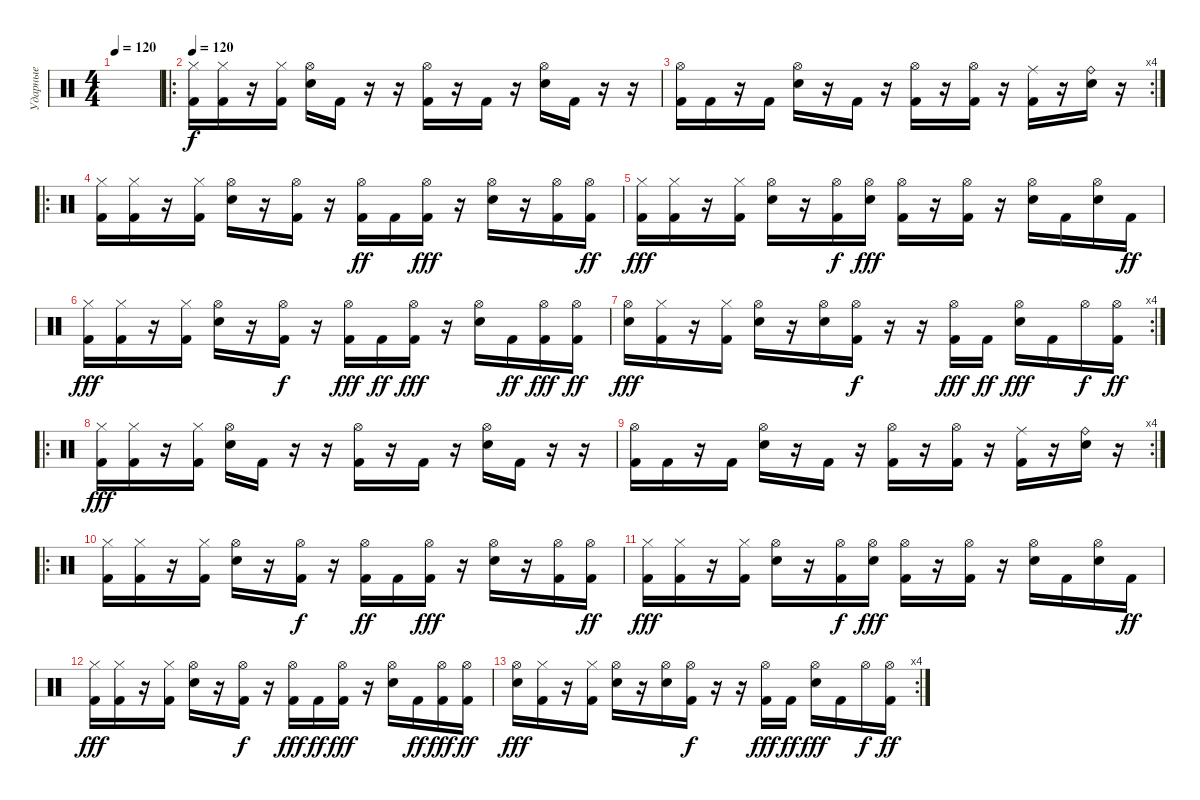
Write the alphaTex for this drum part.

\track ("Ударные" "Ударные") {instrument percussion}
\staff {score}
\articulation defaults
\ts (4 4)
\tempo 120
\clef neutral
\ks c
|
\ro
\tempo 120
("Hi-Hat (closed)" "Kick (hit) 2").16 ("Hi-Hat (closed)" "Kick (hit) 2").16 r.16 ("Hi-Hat (closed)" "Kick (hit) 2").16 ("Hi-Hat (open)" "Electric Snare (hit)").16 "Kick (hit) 2".16 r.16 r.16 ("Hi-Hat (open)" "Kick (hit) 2").16 r.16 "Kick (hit) 2".16 r.16 ("Hi-Hat (open)" "Electric Snare (hit)").16 "Kick (hit) 2".16 r.16 r.16 |
\rc 4
("Hi-Hat (open)" "Kick (hit) 2").16 "Kick (hit) 2".16 r.16 "Kick (hit) 2".16 ("Hi-Hat (open)" "Electric Snare (hit)").16 r.16 "Kick (hit) 2".16 r.16 ("Hi-Hat (open)" "Kick (hit) 2").16 r.16 ("Hi-Hat (open)" "Kick (hit) 2").16 r.16 ("Ride (middle)" "Kick (hit) 2").16 r.16 ("Ride (bell)" "Electric Snare (hit)").16 r.16 |
\ro
("Hi-Hat (closed)" "Kick (hit) 2").16 ("Hi-Hat (closed)" "Kick (hit) 2").16 r.16 ("Hi-Hat (closed)" "Kick (hit) 2").16 ("Hi-Hat (open)" "Electric Snare (hit)").16 r.16 ("Hi-Hat (open)" "Kick (hit) 2").16{dy f} r.16 ("Hi-Hat (open)" "Kick (hit) 2").16{dy ff} "Kick (hit) 2".16 ("Hi-Hat (open)" "Kick (hit) 2").16{dy fff} r.16 ("Hi-Hat (open)" "Electric Snare (hit)").16 r.16 ("Hi-Hat (open)" "Kick (hit) 2").16 ("Hi-Hat (open)" "Kick (hit) 2").16{dy ff} |
("Hi-Hat (closed)" "Kick (hit) 2").16{dy fff} ("Hi-Hat (closed)" "Kick (hit) 2").16 r.16 ("Hi-Hat (closed)" "Kick (hit) 2").16 ("Hi-Hat (open)" "Electric Snare (hit)").16 r.16 ("Hi-Hat (open)" "Kick (hit) 2").16{dy f} ("Hi-Hat (open)" "Electric Snare (hit)").16{dy fff} ("Hi-Hat (open)" "Kick (hit) 2").16 r.16 ("Hi-Hat (open)" "Kick (hit) 2").16 r.16 ("Hi-Hat (open)" "Electric Snare (hit)").16 "Kick (hit) 2".16 ("Hi-Hat (open)" "Electric Snare (hit)").16 "Kick (hit) 2".16{dy ff} |
("Hi-Hat (closed)" "Kick (hit) 2").16{dy fff} ("Hi-Hat (closed)" "Kick (hit) 2").16 r.16 ("Hi-Hat (closed)" "Kick (hit) 2").16 ("Hi-Hat (open)" "Electric Snare (hit)").16 r.16 ("Hi-Hat (open)" "Kick (hit) 2").16{dy f} r.16 ("Hi-Hat (open)" "Kick (hit) 2").16{dy fff} "Kick (hit) 2".16{dy ff} ("Hi-Hat (open)" "Kick (hit) 2").16{dy fff} r.16 ("Hi-Hat (open)" "Electric Snare (hit)").16 "Kick (hit) 2".16{dy ff} ("Hi-Hat (open)" "Kick (hit) 2").16{dy fff} ("Hi-Hat (open)" "Kick (hit) 2").16{dy ff} |
\rc 4
("Hi-Hat (open)" "Electric Snare (hit)").16{dy fff} ("Hi-Hat (closed)" "Kick (hit) 2").16 r.16 ("Hi-Hat (closed)" "Kick (hit) 2").16 ("Hi-Hat (open)" "Electric Snare (hit)").16 r.16 ("Hi-Hat (open)" "Electric Snare (hit)").16 ("Hi-Hat (open)" "Kick (hit) 2").16{dy f} r.16 r.16 ("Hi-Hat (open)" "Kick (hit) 2").16{dy fff} "Kick (hit) 2".16{dy ff} ("Hi-Hat (open)" "Electric Snare (hit)").16{dy fff} "Kick (hit) 2".16 "Hi-Hat (open)".16{dy f} ("Hi-Hat (open)" "Kick (hit) 2").16{dy ff} |
\ro
("Hi-Hat (closed)" "Kick (hit) 2").16{dy fff} ("Hi-Hat (closed)" "Kick (hit) 2").16 r.16 ("Hi-Hat (closed)" "Kick (hit) 2").16 ("Hi-Hat (open)" "Electric Snare (hit)").16 "Kick (hit) 2".16 r.16 r.16 ("Hi-Hat (open)" "Kick (hit) 2").16 r.16 "Kick (hit) 2".16 r.16 ("Hi-Hat (open)" "Electric Snare (hit)").16 "Kick (hit) 2".16 r.16 r.16 |
\rc 4
("Hi-Hat (open)" "Kick (hit) 2").16 "Kick (hit) 2".16 r.16 "Kick (hit) 2".16 ("Hi-Hat (open)" "Electric Snare (hit)").16 r.16 "Kick (hit) 2".16 r.16 ("Hi-Hat (open)" "Kick (hit) 2").16 r.16 ("Hi-Hat (open)" "Kick (hit) 2").16 r.16 ("Ride (middle)" "Kick (hit) 2").16 r.16 ("Ride (bell)" "Electric Snare (hit)").16 r.16 |
\ro
("Hi-Hat (closed)" "Kick (hit) 2").16 ("Hi-Hat (closed)" "Kick (hit) 2").16 r.16 ("Hi-Hat (closed)" "Kick (hit) 2").16 ("Hi-Hat (open)" "Electric Snare (hit)").16 r.16 ("Hi-Hat (open)" "Kick (hit) 2").16{dy f} r.16 ("Hi-Hat (open)" "Kick (hit) 2").16{dy ff} "Kick (hit) 2".16 ("Hi-Hat (open)" "Kick (hit) 2").16{dy fff} r.16 ("Hi-Hat (open)" "Electric Snare (hit)").16 r.16 ("Hi-Hat (open)" "Kick (hit) 2").16 ("Hi-Hat (open)" "Kick (hit) 2").16{dy ff} |
("Hi-Hat (closed)" "Kick (hit) 2").16{dy fff} ("Hi-Hat (closed)" "Kick (hit) 2").16 r.16 ("Hi-Hat (closed)" "Kick (hit) 2").16 ("Hi-Hat (open)" "Electric Snare (hit)").16 r.16 ("Hi-Hat (open)" "Kick (hit) 2").16{dy f} ("Hi-Hat (open)" "Electric Snare (hit)").16{dy fff} ("Hi-Hat (open)" "Kick (hit) 2").16 r.16 ("Hi-Hat (open)" "Kick (hit) 2").16 r.16 ("Hi-Hat (open)" "Electric Snare (hit)").16 "Kick (hit) 2".16 ("Hi-Hat (open)" "Electric Snare (hit)").16 "Kick (hit) 2".16{dy ff} |
("Hi-Hat (closed)" "Kick (hit) 2").16{dy fff} ("Hi-Hat (closed)" "Kick (hit) 2").16 r.16 ("Hi-Hat (closed)" "Kick (hit) 2").16 ("Hi-Hat (open)" "Electric Snare (hit)").16 r.16 ("Hi-Hat (open)" "Kick (hit) 2").16{dy f} r.16 ("Hi-Hat (open)" "Kick (hit) 2").16{dy fff} "Kick (hit) 2".16{dy ff} ("Hi-Hat (open)" "Kick (hit) 2").16{dy fff} r.16 ("Hi-Hat (open)" "Electric Snare (hit)").16 "Kick (hit) 2".16{dy ff} ("Hi-Hat (open)" "Kick (hit) 2").16{dy fff} ("Hi-Hat (open)" "Kick (hit) 2").16{dy ff} |
\rc 4
("Hi-Hat (open)" "Electric Snare (hit)").16{dy fff} ("Hi-Hat (closed)" "Kick (hit) 2").16 r.16 ("Hi-Hat (closed)" "Kick (hit) 2").16 ("Hi-Hat (open)" "Electric Snare (hit)").16 r.16 ("Hi-Hat (open)" "Electric Snare (hit)").16 ("Hi-Hat (open)" "Kick (hit) 2").16{dy f} r.16 r.16 ("Hi-Hat (open)" "Kick (hit) 2").16{dy fff} "Kick (hit) 2".16{dy ff} ("Hi-Hat (open)" "Electric Snare (hit)").16{dy fff} "Kick (hit) 2".16 "Hi-Hat (open)".16{dy f} ("Hi-Hat (open)" "Kick (hit) 2").16{dy ff}
